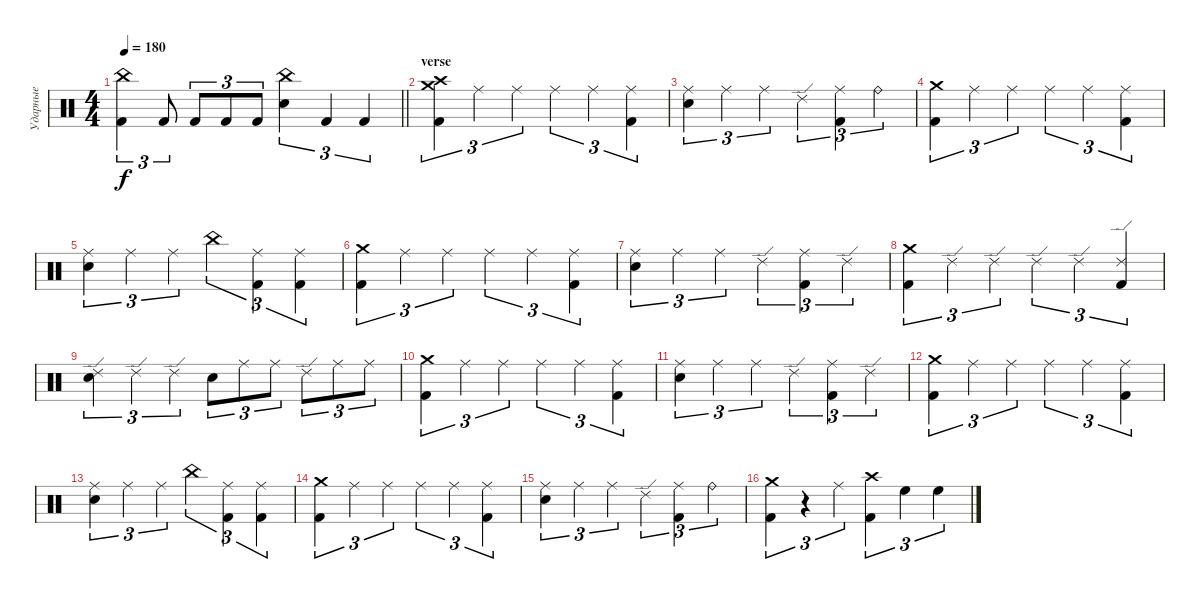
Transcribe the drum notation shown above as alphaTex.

\track ("Ударные" "Ударные") {instrument percussion}
\staff {score}
\articulation defaults
\ts (4 4)
\tempo 180
\clef neutral
\barLineRight lightlight
\ks c
("China (hit)" "Kick (hit) 2").4{tu (3 2) dy f} "Kick (hit) 2".8{tu (3 2)} "Kick (hit) 2".8{tu (3 2)} "Kick (hit) 2".8{tu (3 2)} "Kick (hit) 2".8{tu (3 2)} ("China (hit)" "Electric Snare (hit)").4{tu (3 2)} "Kick (hit) 2".4{tu (3 2)} "Kick (hit) 2".4{tu (3 2)} |
\section ("" "verse")
("Crash high (hit)" "Crash medium (hit)" "Kick (hit) 2").4{tu (3 2)} "Ride (middle)".4{tu (3 2)} "Ride (middle)".4{tu (3 2)} "Ride (middle)".4{tu (3 2)} "Ride (middle)".4{tu (3 2)} ("Ride (middle)" "Kick (hit) 2").4{tu (3 2)} |
("Ride (middle)" "Electric Snare (hit)").4{tu (3 2)} "Ride (middle)".4{tu (3 2)} "Ride (middle)".4{tu (3 2)} "Ride (edge) 2".4{tu (3 2)} ("Ride (middle)" "Kick (hit) 2").4{tu (3 2)} "Ride (bell)".4{tu (3 2)} |
("Crash medium (hit)" "Kick (hit) 2").4{tu (3 2)} "Ride (middle)".4{tu (3 2)} "Ride (middle)".4{tu (3 2)} "Ride (middle)".4{tu (3 2)} "Ride (middle)".4{tu (3 2)} ("Ride (middle)" "Kick (hit) 2").4{tu (3 2)} |
("Ride (middle)" "Electric Snare (hit)").4{tu (3 2)} "Ride (middle)".4{tu (3 2)} "Ride (middle)".4{tu (3 2)} "China (hit)".4{tu (3 2)} ("Ride (middle)" "Kick (hit) 2").4{tu (3 2)} ("Ride (middle)" "Kick (hit) 2").4{tu (3 2)} |
("Crash medium (hit)" "Kick (hit) 2").4{tu (3 2)} "Ride (middle)".4{tu (3 2)} "Ride (middle)".4{tu (3 2)} "Ride (middle)".4{tu (3 2)} "Ride (middle)".4{tu (3 2)} ("Ride (middle)" "Kick (hit) 2").4{tu (3 2)} |
("Ride (middle)" "Electric Snare (hit)").4{tu (3 2)} "Ride (middle)".4{tu (3 2)} "Ride (middle)".4{tu (3 2)} "Ride (edge) 2".4{tu (3 2)} ("Ride (middle)" "Kick (hit) 2").4{tu (3 2)} "Ride (edge) 2".4{tu (3 2)} |
("Crash medium (hit)" "Kick (hit) 2").4{tu (3 2)} "Ride (edge) 2".4{tu (3 2)} "Ride (edge) 2".4{tu (3 2)} "Ride (edge) 2".4{tu (3 2)} "Ride (edge) 2".4{tu (3 2)} ("Ride (edge) 2" "Kick (hit) 2").4{tu (3 2)} |
("Ride (edge) 2" "Electric Snare (hit)").4{tu (3 2)} "Ride (edge) 2".4{tu (3 2)} "Ride (edge) 2".4{tu (3 2)} "Electric Snare (hit)".8{tu (3 2)} "Ride (middle)".8{tu (3 2)} "Ride (middle)".8{tu (3 2)} "Ride (edge) 2".8{tu (3 2)} "Ride (middle)".8{tu (3 2)} "Ride (middle)".8{tu (3 2)} |
("Crash medium (hit)" "Kick (hit) 2").4{tu (3 2)} "Ride (middle)".4{tu (3 2)} "Ride (middle)".4{tu (3 2)} "Ride (middle)".4{tu (3 2)} "Ride (middle)".4{tu (3 2)} ("Ride (middle)" "Kick (hit) 2").4{tu (3 2)} |
("Ride (middle)" "Electric Snare (hit)").4{tu (3 2)} "Ride (middle)".4{tu (3 2)} "Ride (middle)".4{tu (3 2)} "Ride (edge) 2".4{tu (3 2)} ("Ride (middle)" "Kick (hit) 2").4{tu (3 2)} "Ride (edge) 2".4{tu (3 2)} |
("Crash medium (hit)" "Kick (hit) 2").4{tu (3 2)} "Ride (middle)".4{tu (3 2)} "Ride (middle)".4{tu (3 2)} "Ride (middle)".4{tu (3 2)} "Ride (middle)".4{tu (3 2)} ("Ride (middle)" "Kick (hit) 2").4{tu (3 2)} |
("Ride (middle)" "Electric Snare (hit)").4{tu (3 2)} "Ride (middle)".4{tu (3 2)} "Ride (middle)".4{tu (3 2)} "China (hit)".4{tu (3 2)} ("Ride (middle)" "Kick (hit) 2").4{tu (3 2)} ("Ride (middle)" "Kick (hit) 2").4{tu (3 2)} |
("Crash medium (hit)" "Kick (hit) 2").4{tu (3 2)} "Ride (middle)".4{tu (3 2)} "Ride (middle)".4{tu (3 2)} "Ride (middle)".4{tu (3 2)} "Ride (middle)".4{tu (3 2)} ("Ride (middle)" "Kick (hit) 2").4{tu (3 2)} |
("Ride (middle)" "Electric Snare (hit)").4{tu (3 2)} "Ride (middle)".4{tu (3 2)} "Ride (middle)".4{tu (3 2)} "Ride (edge) 2".4{tu (3 2)} ("Ride (middle)" "Kick (hit) 2").4{tu (3 2)} "Ride (bell)".4{tu (3 2)} |
("Crash medium (hit)" "Kick (hit) 2").4{tu (3 2)} r.4{tu (3 2)} "Ride (middle)".4{tu (3 2)} ("Crash high (hit)" "Kick (hit) 2").4{tu (3 2)} "High Floor Tom (hit)".4{tu (3 2)} "High Floor Tom (hit)".4{tu (3 2)}
